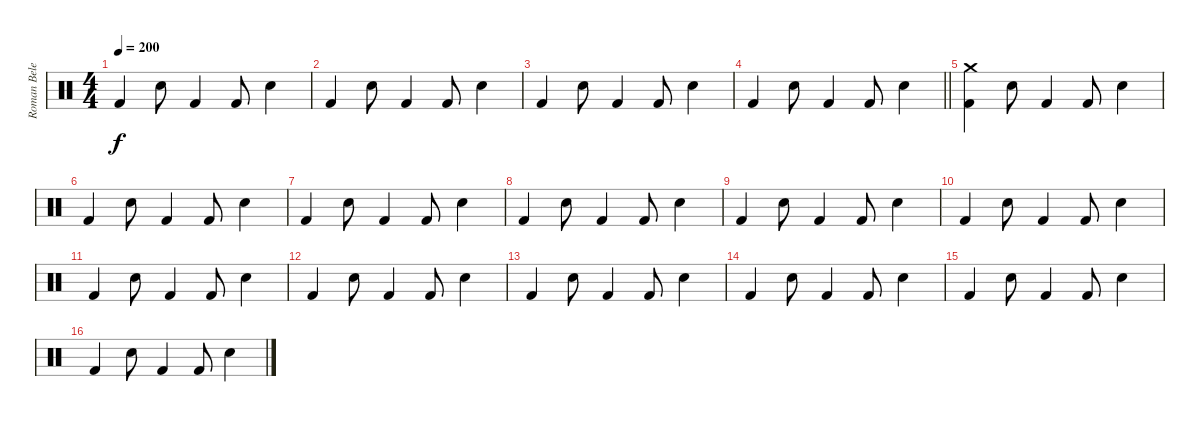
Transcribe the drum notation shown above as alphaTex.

\track ("Roman Belenkiy" "Roman Bele") {instrument percussion}
\staff {score}
\articulation defaults
\ts (4 4)
\tempo 200
\clef neutral
\ks c "Kick (hit) 2".4{dy f} "Snare (hit) 2".8 "Kick (hit) 2".4 "Kick (hit) 2".8 "Snare (hit) 2".4
|
"Kick (hit) 2".4 "Snare (hit) 2".8 "Kick (hit) 2".4 "Kick (hit) 2".8 "Snare (hit) 2".4 |
"Kick (hit) 2".4 "Snare (hit) 2".8 "Kick (hit) 2".4 "Kick (hit) 2".8 "Snare (hit) 2".4 |
\barLineRight lightlight "Kick (hit) 2".4 "Snare (hit) 2".8 "Kick (hit) 2".4 "Kick (hit) 2".8 "Snare (hit) 2".4
|
\section ("" "")
("Crash medium (hit)" "Kick (hit) 2").4 "Snare (hit) 2".8 "Kick (hit) 2".4 "Kick (hit) 2".8 "Snare (hit) 2".4 |
"Kick (hit) 2".4 "Snare (hit) 2".8 "Kick (hit) 2".4 "Kick (hit) 2".8 "Snare (hit) 2".4 |
"Kick (hit) 2".4 "Snare (hit) 2".8 "Kick (hit) 2".4 "Kick (hit) 2".8 "Snare (hit) 2".4 |
"Kick (hit) 2".4 "Snare (hit) 2".8 "Kick (hit) 2".4 "Kick (hit) 2".8 "Snare (hit) 2".4 |
"Kick (hit) 2".4 "Snare (hit) 2".8 "Kick (hit) 2".4 "Kick (hit) 2".8 "Snare (hit) 2".4 |
"Kick (hit) 2".4 "Snare (hit) 2".8 "Kick (hit) 2".4 "Kick (hit) 2".8 "Snare (hit) 2".4 |
"Kick (hit) 2".4 "Snare (hit) 2".8 "Kick (hit) 2".4 "Kick (hit) 2".8 "Snare (hit) 2".4 |
"Kick (hit) 2".4 "Snare (hit) 2".8 "Kick (hit) 2".4 "Kick (hit) 2".8 "Snare (hit) 2".4 |
"Kick (hit) 2".4 "Snare (hit) 2".8 "Kick (hit) 2".4 "Kick (hit) 2".8 "Snare (hit) 2".4 |
"Kick (hit) 2".4 "Snare (hit) 2".8 "Kick (hit) 2".4 "Kick (hit) 2".8 "Snare (hit) 2".4 |
"Kick (hit) 2".4 "Snare (hit) 2".8 "Kick (hit) 2".4 "Kick (hit) 2".8 "Snare (hit) 2".4 |
"Kick (hit) 2".4 "Snare (hit) 2".8 "Kick (hit) 2".4 "Kick (hit) 2".8 "Snare (hit) 2".4
